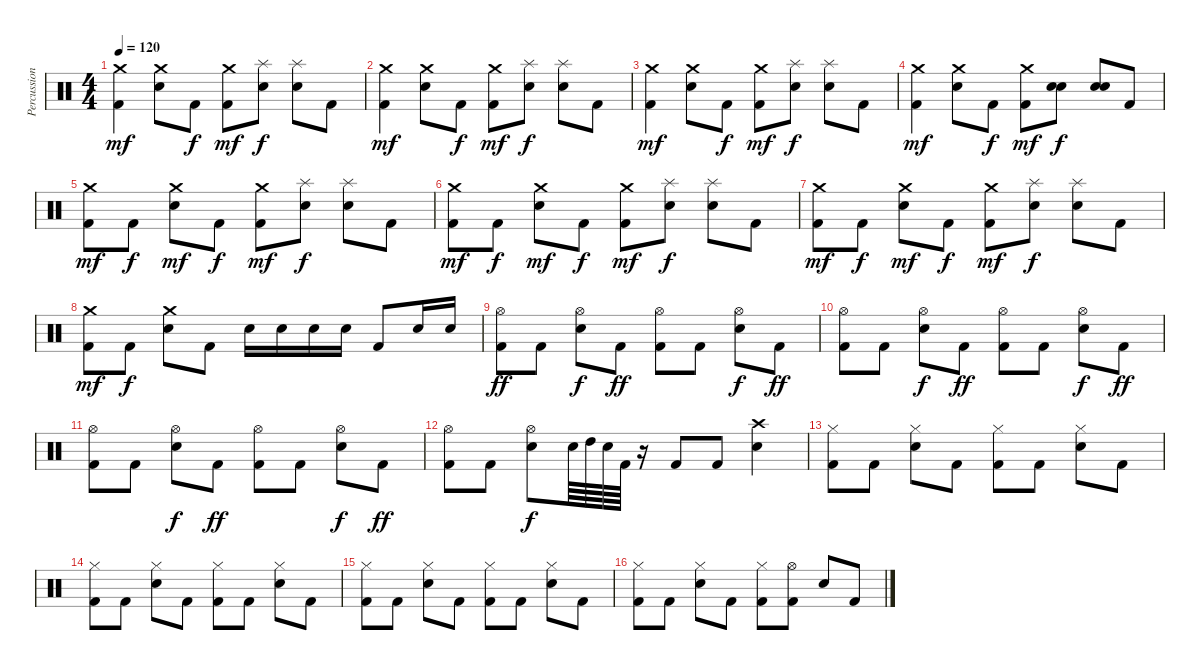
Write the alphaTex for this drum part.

\track ("Percussion" "Percussion") {instrument percussion}
\staff {score}
\articulation defaults
\ts (4 4)
\tempo 120
\clef neutral
\ks c
("Crash medium (hit)" "Kick (hit) 2").4{dy mf} ("Crash medium (hit)" "Electric Snare (hit)").8 "Kick (hit) 2".8{dy f} ("Crash medium (hit)" "Kick (hit) 2").8{dy mf} ("Splash (hit)" "Electric Snare (hit)").8{dy f} ("Splash (hit)" "Electric Snare (hit)").8 "Kick (hit) 2".8 |
("Crash medium (hit)" "Kick (hit) 2").4{dy mf} ("Crash medium (hit)" "Electric Snare (hit)").8 "Kick (hit) 2".8{dy f} ("Crash medium (hit)" "Kick (hit) 2").8{dy mf} ("Splash (hit)" "Electric Snare (hit)").8{dy f} ("Splash (hit)" "Electric Snare (hit)").8 "Kick (hit) 2".8 |
("Crash medium (hit)" "Kick (hit) 2").4{dy mf} ("Crash medium (hit)" "Electric Snare (hit)").8 "Kick (hit) 2".8{dy f} ("Crash medium (hit)" "Kick (hit) 2").8{dy mf} ("Splash (hit)" "Electric Snare (hit)").8{dy f} ("Splash (hit)" "Electric Snare (hit)").8 "Kick (hit) 2".8 |
("Crash medium (hit)" "Kick (hit) 2").4{dy mf} ("Crash medium (hit)" "Electric Snare (hit)").8 "Kick (hit) 2".8{dy f} ("Crash medium (hit)" "Kick (hit) 2").8{dy mf} ("Electric Snare (hit)" "Electric Snare (hit)").8{dy f} ("Electric Snare (hit)" "Electric Snare (hit)").8 "Kick (hit) 2".8 |
("Crash medium (hit)" "Kick (hit) 2").8{dy mf} "Kick (hit) 2".8{dy f} ("Crash medium (hit)" "Electric Snare (hit)").8{dy mf} "Kick (hit) 2".8{dy f} ("Crash medium (hit)" "Kick (hit) 2").8{dy mf} ("Splash (hit)" "Electric Snare (hit)").8{dy f} ("Splash (hit)" "Electric Snare (hit)").8 "Kick (hit) 2".8 |
("Crash medium (hit)" "Kick (hit) 2").8{dy mf} "Kick (hit) 2".8{dy f} ("Crash medium (hit)" "Electric Snare (hit)").8{dy mf} "Kick (hit) 2".8{dy f} ("Crash medium (hit)" "Kick (hit) 2").8{dy mf} ("Splash (hit)" "Electric Snare (hit)").8{dy f} ("Splash (hit)" "Electric Snare (hit)").8 "Kick (hit) 2".8 |
("Crash medium (hit)" "Kick (hit) 2").8{dy mf} "Kick (hit) 2".8{dy f} ("Crash medium (hit)" "Electric Snare (hit)").8{dy mf} "Kick (hit) 2".8{dy f} ("Crash medium (hit)" "Kick (hit) 2").8{dy mf} ("Splash (hit)" "Electric Snare (hit)").8{dy f} ("Splash (hit)" "Electric Snare (hit)").8 "Kick (hit) 2".8 |
("Crash medium (hit)" "Kick (hit) 2").8{dy mf} "Kick (hit) 2".8{dy f} ("Crash medium (hit)" "Electric Snare (hit)").8 "Kick (hit) 2".8 "Electric Snare (hit)".16 "Electric Snare (hit)".16 "Electric Snare (hit)".16 "Electric Snare (hit)".16 "Kick (hit) 2".8 "Electric Snare (hit)".16 "Electric Snare (hit)".16 |
("Hi-Hat (open)" "Kick (hit) 2").8{dy ff} "Kick (hit) 2".8 ("Hi-Hat (open)" "Electric Snare (hit)").8{dy f} "Kick (hit) 2".8{dy ff} ("Hi-Hat (open)" "Kick (hit) 2").8 "Kick (hit) 2".8 ("Hi-Hat (open)" "Electric Snare (hit)").8{dy f} "Kick (hit) 2".8{dy ff} |
("Hi-Hat (open)" "Kick (hit) 2").8 "Kick (hit) 2".8 ("Hi-Hat (open)" "Electric Snare (hit)").8{dy f} "Kick (hit) 2".8{dy ff} ("Hi-Hat (open)" "Kick (hit) 2").8 "Kick (hit) 2".8 ("Hi-Hat (open)" "Electric Snare (hit)").8{dy f} "Kick (hit) 2".8{dy ff} |
("Hi-Hat (open)" "Kick (hit) 2").8 "Kick (hit) 2".8 ("Hi-Hat (open)" "Electric Snare (hit)").8{dy f} "Kick (hit) 2".8{dy ff} ("Hi-Hat (open)" "Kick (hit) 2").8 "Kick (hit) 2".8 ("Hi-Hat (open)" "Electric Snare (hit)").8{dy f} "Kick (hit) 2".8{dy ff} |
("Hi-Hat (open)" "Kick (hit) 2").8 "Kick (hit) 2".8 ("Hi-Hat (open)" "Electric Snare (hit)").8{dy f} "Electric Snare (hit)".64 "High Tom (hit)".64 "Electric Snare (hit)".64 "Kick (hit) 2".64 r.16 "Kick (hit) 2".8 "Kick (hit) 2".8 ("Crash high (hit)" "Electric Snare (hit)").4 |
("Hi-Hat (closed)" "Kick (hit) 2").8 "Kick (hit) 2".8 ("Hi-Hat (closed)" "Electric Snare (hit)").8 "Kick (hit) 2".8 ("Hi-Hat (closed)" "Kick (hit) 2").8 "Kick (hit) 2".8 ("Hi-Hat (closed)" "Electric Snare (hit)").8 "Kick (hit) 2".8 |
("Hi-Hat (closed)" "Kick (hit) 2").8 "Kick (hit) 2".8 ("Hi-Hat (closed)" "Electric Snare (hit)").8 "Kick (hit) 2".8 ("Hi-Hat (closed)" "Kick (hit) 2").8 "Kick (hit) 2".8 ("Hi-Hat (closed)" "Electric Snare (hit)").8 "Kick (hit) 2".8 |
("Hi-Hat (closed)" "Kick (hit) 2").8 "Kick (hit) 2".8 ("Hi-Hat (closed)" "Electric Snare (hit)").8 "Kick (hit) 2".8 ("Hi-Hat (closed)" "Kick (hit) 2").8 "Kick (hit) 2".8 ("Hi-Hat (closed)" "Electric Snare (hit)").8 "Kick (hit) 2".8 |
("Hi-Hat (closed)" "Kick (hit) 2").8 "Kick (hit) 2".8 ("Hi-Hat (closed)" "Electric Snare (hit)").8 "Kick (hit) 2".8 ("Hi-Hat (closed)" "Kick (hit) 2").8 ("Hi-Hat (open)" "Kick (hit) 2").8 "Electric Snare (hit)".8 "Kick (hit) 2".8
